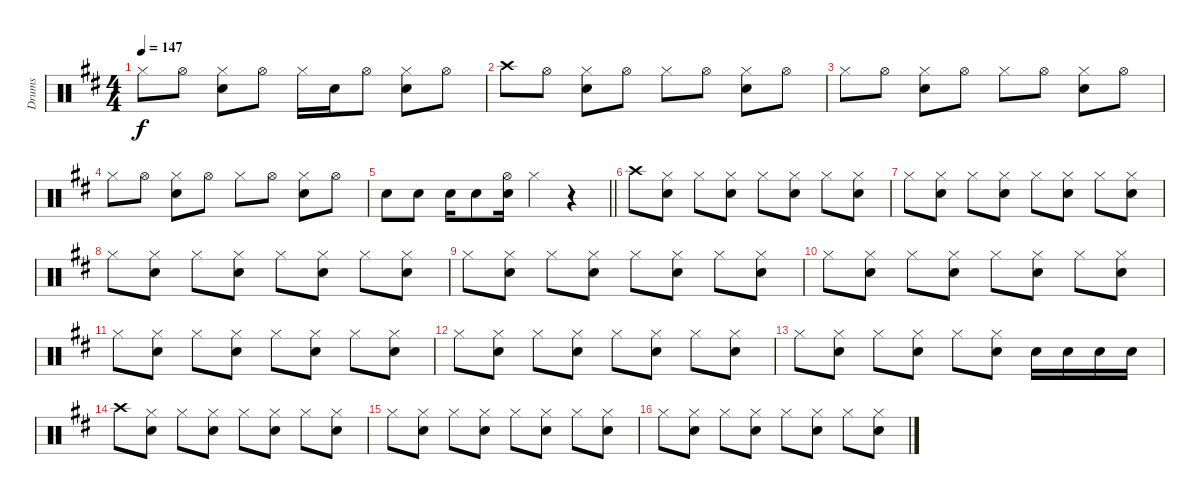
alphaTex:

\track ("Drums" "Drums") {instrument percussion}
\staff {score}
\articulation defaults
\ts (4 4)
\tempo 147
\clef neutral
\ks d "Hi-Hat (closed)".8{dy f} "Hi-Hat (open)".8
("Hi-Hat (closed)" "Snare (hit) 2").8 "Hi-Hat (open)".8 "Hi-Hat (closed)".16 "Snare (hit) 2".16 "Hi-Hat (open)".8 ("Hi-Hat (closed)" "Snare (hit) 2").8 "Hi-Hat (open)".8 |
"Crash high (hit)".8 "Hi-Hat (open)".8 ("Hi-Hat (closed)" "Snare (hit) 2").8 "Hi-Hat (open)".8 "Hi-Hat (closed)".8 "Hi-Hat (open)".8 ("Hi-Hat (closed)" "Snare (hit) 2").8 "Hi-Hat (open)".8 |
"Hi-Hat (closed)".8 "Hi-Hat (open)".8 ("Hi-Hat (closed)" "Snare (hit) 2").8 "Hi-Hat (open)".8 "Hi-Hat (closed)".8 "Hi-Hat (open)".8 ("Hi-Hat (closed)" "Snare (hit) 2").8 "Hi-Hat (open)".8 |
"Hi-Hat (closed)".8 "Hi-Hat (open)".8 ("Hi-Hat (closed)" "Snare (hit) 2").8 "Hi-Hat (open)".8 "Hi-Hat (closed)".8 "Hi-Hat (open)".8 ("Hi-Hat (closed)" "Snare (hit) 2").8 "Hi-Hat (open)".8 |
\barLineRight lightlight "Snare (hit) 2".8 "Snare (hit) 2".8 "Snare (hit) 2".16 "Snare (hit) 2".8
("Hi-Hat (open)" "Snare (hit) 2").16 "Hi-Hat (closed)".4 r.4 |
"Crash high (hit)".8 ("Hi-Hat (closed)" "Snare (hit) 2").8 "Hi-Hat (closed)".8 ("Hi-Hat (closed)" "Snare (hit) 2").8 "Hi-Hat (closed)".8 ("Hi-Hat (closed)" "Snare (hit) 2").8 "Hi-Hat (closed)".8 ("Hi-Hat (closed)" "Snare (hit) 2").8 |
"Hi-Hat (closed)".8 ("Hi-Hat (closed)" "Snare (hit) 2").8 "Hi-Hat (closed)".8 ("Hi-Hat (closed)" "Snare (hit) 2").8 "Hi-Hat (closed)".8 ("Hi-Hat (closed)" "Snare (hit) 2").8 "Hi-Hat (closed)".8 ("Hi-Hat (closed)" "Snare (hit) 2").8 |
"Hi-Hat (closed)".8 ("Hi-Hat (closed)" "Snare (hit) 2").8 "Hi-Hat (closed)".8 ("Hi-Hat (closed)" "Snare (hit) 2").8 "Hi-Hat (closed)".8 ("Hi-Hat (closed)" "Snare (hit) 2").8 "Hi-Hat (closed)".8 ("Hi-Hat (closed)" "Snare (hit) 2").8 |
"Hi-Hat (closed)".8 ("Hi-Hat (closed)" "Snare (hit) 2").8 "Hi-Hat (closed)".8 ("Hi-Hat (closed)" "Snare (hit) 2").8 "Hi-Hat (closed)".8 ("Hi-Hat (closed)" "Snare (hit) 2").8 "Hi-Hat (closed)".8 ("Hi-Hat (closed)" "Snare (hit) 2").8 |
"Hi-Hat (closed)".8 ("Hi-Hat (closed)" "Snare (hit) 2").8 "Hi-Hat (closed)".8 ("Hi-Hat (closed)" "Snare (hit) 2").8 "Hi-Hat (closed)".8 ("Hi-Hat (closed)" "Snare (hit) 2").8 "Hi-Hat (closed)".8 ("Hi-Hat (closed)" "Snare (hit) 2").8 |
"Hi-Hat (closed)".8 ("Hi-Hat (closed)" "Snare (hit) 2").8 "Hi-Hat (closed)".8 ("Hi-Hat (closed)" "Snare (hit) 2").8 "Hi-Hat (closed)".8 ("Hi-Hat (closed)" "Snare (hit) 2").8 "Hi-Hat (closed)".8 ("Hi-Hat (closed)" "Snare (hit) 2").8 |
"Hi-Hat (closed)".8 ("Hi-Hat (closed)" "Snare (hit) 2").8 "Hi-Hat (closed)".8 ("Hi-Hat (closed)" "Snare (hit) 2").8 "Hi-Hat (closed)".8 ("Hi-Hat (closed)" "Snare (hit) 2").8 "Hi-Hat (closed)".8 ("Hi-Hat (closed)" "Snare (hit) 2").8 |
"Hi-Hat (closed)".8 ("Hi-Hat (closed)" "Snare (hit) 2").8 "Hi-Hat (closed)".8 ("Hi-Hat (closed)" "Snare (hit) 2").8 "Hi-Hat (closed)".8 ("Hi-Hat (closed)" "Snare (hit) 2").8 "Snare (hit) 2".16 "Snare (hit) 2".16 "Snare (hit) 2".16 "Snare (hit) 2".16 |
"Crash high (hit)".8 ("Hi-Hat (closed)" "Snare (hit) 2").8 "Hi-Hat (closed)".8 ("Hi-Hat (closed)" "Snare (hit) 2").8 "Hi-Hat (closed)".8 ("Hi-Hat (closed)" "Snare (hit) 2").8 "Hi-Hat (closed)".8 ("Hi-Hat (closed)" "Snare (hit) 2").8 |
"Hi-Hat (closed)".8 ("Hi-Hat (closed)" "Snare (hit) 2").8 "Hi-Hat (closed)".8 ("Hi-Hat (closed)" "Snare (hit) 2").8 "Hi-Hat (closed)".8 ("Hi-Hat (closed)" "Snare (hit) 2").8 "Hi-Hat (closed)".8 ("Hi-Hat (closed)" "Snare (hit) 2").8 |
"Hi-Hat (closed)".8 ("Hi-Hat (closed)" "Snare (hit) 2").8 "Hi-Hat (closed)".8 ("Hi-Hat (closed)" "Snare (hit) 2").8 "Hi-Hat (closed)".8 ("Hi-Hat (closed)" "Snare (hit) 2").8 "Hi-Hat (closed)".8 ("Hi-Hat (closed)" "Snare (hit) 2").8
